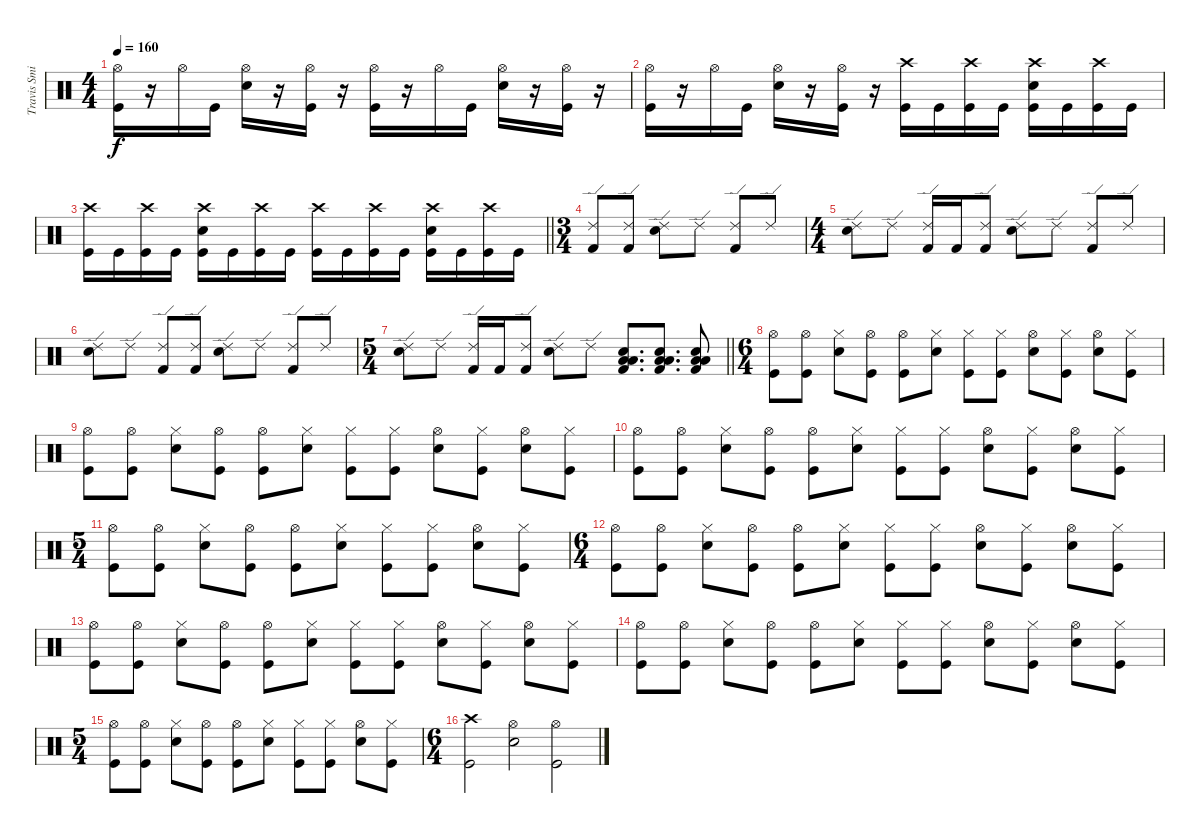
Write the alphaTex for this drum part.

\track ("Travis Smith" "Travis Smi") {instrument percussion}
\staff {score}
\articulation defaults
\ts (4 4)
\tempo 160
\clef neutral
\ks c
("Hi-Hat (open)" "Kick (hit)").16{dy f} r.16 "Hi-Hat (open)".16 "Kick (hit)".16 ("Hi-Hat (open)" "Electric Snare (hit)").16 r.16 ("Hi-Hat (open)" "Kick (hit)").16 r.16 ("Hi-Hat (open)" "Kick (hit)").16 r.16 "Hi-Hat (open)".16 "Kick (hit)".16 ("Hi-Hat (open)" "Electric Snare (hit)").16 r.16 ("Hi-Hat (open)" "Kick (hit)").16 r.16 |
("Hi-Hat (open)" "Kick (hit)").16 r.16 "Hi-Hat (open)".16 "Kick (hit)".16 ("Hi-Hat (open)" "Electric Snare (hit)").16 r.16 ("Hi-Hat (open)" "Kick (hit)").16 r.16 ("Crash high (hit)" "Kick (hit)").16 "Kick (hit)".16 ("Crash high (hit)" "Kick (hit)").16 "Kick (hit)".16 ("Crash high (hit)" "Electric Snare (hit)" "Kick (hit)").16 "Kick (hit)".16 ("Crash high (hit)" "Kick (hit)").16 "Kick (hit)".16 |
\barLineRight lightlight
("Crash high (hit)" "Kick (hit)").16 "Kick (hit)".16 ("Crash high (hit)" "Kick (hit)").16 "Kick (hit)".16 ("Crash high (hit)" "Electric Snare (hit)" "Kick (hit)").16 "Kick (hit)".16 ("Crash high (hit)" "Kick (hit)").16 "Kick (hit)".16 ("Crash high (hit)" "Kick (hit)").16 "Kick (hit)".16 ("Crash high (hit)" "Kick (hit)").16 "Kick (hit)".16 ("Crash high (hit)" "Electric Snare (hit)" "Kick (hit)").16 "Kick (hit)".16 ("Crash high (hit)" "Kick (hit)").16 "Kick (hit)".16 |
\ts (3 4)
\section ("" "")
("Ride (edge) 2" "Kick (hit) 2").8 ("Ride (edge) 2" "Kick (hit) 2").8 ("Ride (edge) 2" "Snare (hit) 2").8 "Ride (edge) 2".8 ("Ride (edge) 2" "Kick (hit) 2").8 "Ride (edge) 2".8 |
\ts (4 4)
("Ride (edge) 2" "Snare (hit) 2").8 "Ride (edge) 2".8 ("Ride (edge) 2" "Kick (hit) 2").16 "Kick (hit) 2".16 ("Ride (edge) 2" "Kick (hit) 2").8 ("Ride (edge) 2" "Snare (hit) 2").8 "Ride (edge) 2".8 ("Ride (edge) 2" "Kick (hit) 2").8 "Ride (edge) 2".8 |
("Ride (edge) 2" "Snare (hit) 2").8 "Ride (edge) 2".8 ("Ride (edge) 2" "Kick (hit) 2").8 ("Ride (edge) 2" "Kick (hit) 2").8 ("Ride (edge) 2" "Snare (hit) 2").8 "Ride (edge) 2".8 ("Ride (edge) 2" "Kick (hit) 2").8 "Ride (edge) 2".8 |
\ts (5 4)
\barLineRight lightlight
("Ride (edge) 2" "Snare (hit) 2").8 "Ride (edge) 2".8 ("Ride (edge) 2" "Kick (hit) 2").16 "Kick (hit) 2".16 ("Ride (edge) 2" "Kick (hit) 2").8 ("Ride (edge) 2" "Snare (hit) 2").8 "Ride (edge) 2".8 ("Snare (hit) 2" "Low Floor Tom (hit)" "Low Tom (hit)" "Kick (hit) 2").8{d} ("Snare (hit) 2" "Low Tom (hit)" "Low Floor Tom (hit)" "Kick (hit) 2").8{d} ("Snare (hit) 2" "Low Tom (hit)" "Low Floor Tom (hit)" "Kick (hit) 2").8 |
\ts (6 4)
\section ("" "")
("Hi-Hat (open)" "Kick (hit)").8 ("Hi-Hat (open)" "Kick (hit)").8 ("Hi-Hat (closed)" "Electric Snare (hit)").8 ("Hi-Hat (open)" "Kick (hit)").8 ("Hi-Hat (open)" "Kick (hit)").8 ("Hi-Hat (closed)" "Electric Snare (hit)").8 ("Hi-Hat (closed)" "Kick (hit)").8 ("Hi-Hat (closed)" "Kick (hit)").8 ("Hi-Hat (open)" "Electric Snare (hit)").8 ("Hi-Hat (closed)" "Kick (hit)").8 ("Hi-Hat (open)" "Electric Snare (hit)").8 ("Hi-Hat (closed)" "Kick (hit)").8 |
("Hi-Hat (open)" "Kick (hit)").8 ("Hi-Hat (open)" "Kick (hit)").8 ("Hi-Hat (closed)" "Electric Snare (hit)").8 ("Hi-Hat (open)" "Kick (hit)").8 ("Hi-Hat (open)" "Kick (hit)").8 ("Hi-Hat (closed)" "Electric Snare (hit)").8 ("Hi-Hat (closed)" "Kick (hit)").8 ("Hi-Hat (closed)" "Kick (hit)").8 ("Hi-Hat (open)" "Electric Snare (hit)").8 ("Hi-Hat (closed)" "Kick (hit)").8 ("Hi-Hat (open)" "Electric Snare (hit)").8 ("Hi-Hat (closed)" "Kick (hit)").8 |
("Hi-Hat (open)" "Kick (hit)").8 ("Hi-Hat (open)" "Kick (hit)").8 ("Hi-Hat (closed)" "Electric Snare (hit)").8 ("Hi-Hat (open)" "Kick (hit)").8 ("Hi-Hat (open)" "Kick (hit)").8 ("Hi-Hat (closed)" "Electric Snare (hit)").8 ("Hi-Hat (closed)" "Kick (hit)").8 ("Hi-Hat (closed)" "Kick (hit)").8 ("Hi-Hat (open)" "Electric Snare (hit)").8 ("Hi-Hat (closed)" "Kick (hit)").8 ("Hi-Hat (open)" "Electric Snare (hit)").8 ("Hi-Hat (closed)" "Kick (hit)").8 |
\ts (5 4)
("Hi-Hat (open)" "Kick (hit)").8 ("Hi-Hat (open)" "Kick (hit)").8 ("Hi-Hat (closed)" "Electric Snare (hit)").8 ("Hi-Hat (open)" "Kick (hit)").8 ("Hi-Hat (open)" "Kick (hit)").8 ("Hi-Hat (closed)" "Electric Snare (hit)").8 ("Hi-Hat (closed)" "Kick (hit)").8 ("Hi-Hat (closed)" "Kick (hit)").8 ("Hi-Hat (open)" "Electric Snare (hit)").8 ("Hi-Hat (closed)" "Kick (hit)").8 |
\ts (6 4)
("Hi-Hat (open)" "Kick (hit)").8 ("Hi-Hat (open)" "Kick (hit)").8 ("Hi-Hat (closed)" "Electric Snare (hit)").8 ("Hi-Hat (open)" "Kick (hit)").8 ("Hi-Hat (open)" "Kick (hit)").8 ("Hi-Hat (closed)" "Electric Snare (hit)").8 ("Hi-Hat (closed)" "Kick (hit)").8 ("Hi-Hat (closed)" "Kick (hit)").8 ("Hi-Hat (open)" "Electric Snare (hit)").8 ("Hi-Hat (closed)" "Kick (hit)").8 ("Hi-Hat (open)" "Electric Snare (hit)").8 ("Hi-Hat (closed)" "Kick (hit)").8 |
("Hi-Hat (open)" "Kick (hit)").8 ("Hi-Hat (open)" "Kick (hit)").8 ("Hi-Hat (closed)" "Electric Snare (hit)").8 ("Hi-Hat (open)" "Kick (hit)").8 ("Hi-Hat (open)" "Kick (hit)").8 ("Hi-Hat (closed)" "Electric Snare (hit)").8 ("Hi-Hat (closed)" "Kick (hit)").8 ("Hi-Hat (closed)" "Kick (hit)").8 ("Hi-Hat (open)" "Electric Snare (hit)").8 ("Hi-Hat (closed)" "Kick (hit)").8 ("Hi-Hat (open)" "Electric Snare (hit)").8 ("Hi-Hat (closed)" "Kick (hit)").8 |
("Hi-Hat (open)" "Kick (hit)").8 ("Hi-Hat (open)" "Kick (hit)").8 ("Hi-Hat (closed)" "Electric Snare (hit)").8 ("Hi-Hat (open)" "Kick (hit)").8 ("Hi-Hat (open)" "Kick (hit)").8 ("Hi-Hat (closed)" "Electric Snare (hit)").8 ("Hi-Hat (closed)" "Kick (hit)").8 ("Hi-Hat (closed)" "Kick (hit)").8 ("Hi-Hat (open)" "Electric Snare (hit)").8 ("Hi-Hat (closed)" "Kick (hit)").8 ("Hi-Hat (open)" "Electric Snare (hit)").8 ("Hi-Hat (closed)" "Kick (hit)").8 |
\ts (5 4)
("Hi-Hat (open)" "Kick (hit)").8 ("Hi-Hat (open)" "Kick (hit)").8 ("Hi-Hat (closed)" "Electric Snare (hit)").8 ("Hi-Hat (open)" "Kick (hit)").8 ("Hi-Hat (open)" "Kick (hit)").8 ("Hi-Hat (closed)" "Electric Snare (hit)").8 ("Hi-Hat (closed)" "Kick (hit)").8 ("Hi-Hat (closed)" "Kick (hit)").8 ("Hi-Hat (open)" "Electric Snare (hit)").8 ("Hi-Hat (closed)" "Kick (hit)").8 |
\ts (6 4)
("Crash high (hit)" "Kick (hit)").2 ("Hi-Hat (open)" "Electric Snare (hit)").2 ("Hi-Hat (open)" "Kick (hit)").2
